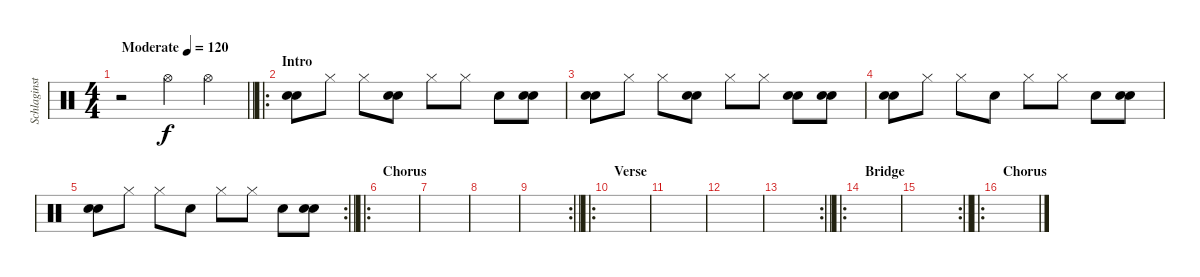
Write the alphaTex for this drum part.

\track ("Schlaginstrumente - Auswahl" "Schlaginst") {instrument percussion}
\staff {score}
\articulation defaults
\ts (4 4)
\tempo (120 "Moderate")
\clef neutral
\barLineRight lightlight
\ks c
r.2{dy f} "Hi-Hat (open)".4 "Hi-Hat (open)".4 |
\ro
\section ("" "Intro")
("Hand Clap (hit)" "Hand Clap (hit)").8 "Hi-Hat (closed)".8 "Hi-Hat (closed)".8 ("Hand Clap (hit)" "Hand Clap (hit)").8 "Hi-Hat (closed)".8 "Hi-Hat (closed)".8 "Hand Clap (hit)".8 ("Hand Clap (hit)" "Hand Clap (hit)").8 |
("Hand Clap (hit)" "Hand Clap (hit)").8 "Hi-Hat (closed)".8 "Hi-Hat (closed)".8 ("Hand Clap (hit)" "Hand Clap (hit)").8 "Hi-Hat (closed)".8 "Hi-Hat (closed)".8 ("Hand Clap (hit)" "Hand Clap (hit)").8 ("Hand Clap (hit)" "Hand Clap (hit)").8 |
("Hand Clap (hit)" "Hand Clap (hit)").8 "Hi-Hat (closed)".8 "Hi-Hat (closed)".8 "Hand Clap (hit)".8 "Hi-Hat (closed)".8 "Hi-Hat (closed)".8 "Hand Clap (hit)".8 ("Hand Clap (hit)" "Hand Clap (hit)").8 |
\rc 2
\barLineRight lightlight
("Hand Clap (hit)" "Hand Clap (hit)").8 "Hi-Hat (closed)".8 "Hi-Hat (closed)".8 "Hand Clap (hit)".8 "Hi-Hat (closed)".8 "Hi-Hat (closed)".8 "Hand Clap (hit)".8 ("Hand Clap (hit)" "Hand Clap (hit)").8 |
\ro
\section ("" "Chorus")
|
|
|
\rc 2
\barLineRight lightlight
|
\ro
\section ("" "Verse")
|
|
|
\rc 2
\barLineRight lightlight
|
\ro
\section ("" "Bridge")
|
\rc 2
\barLineRight lightlight
|
\ro
\section ("" "Chorus")
